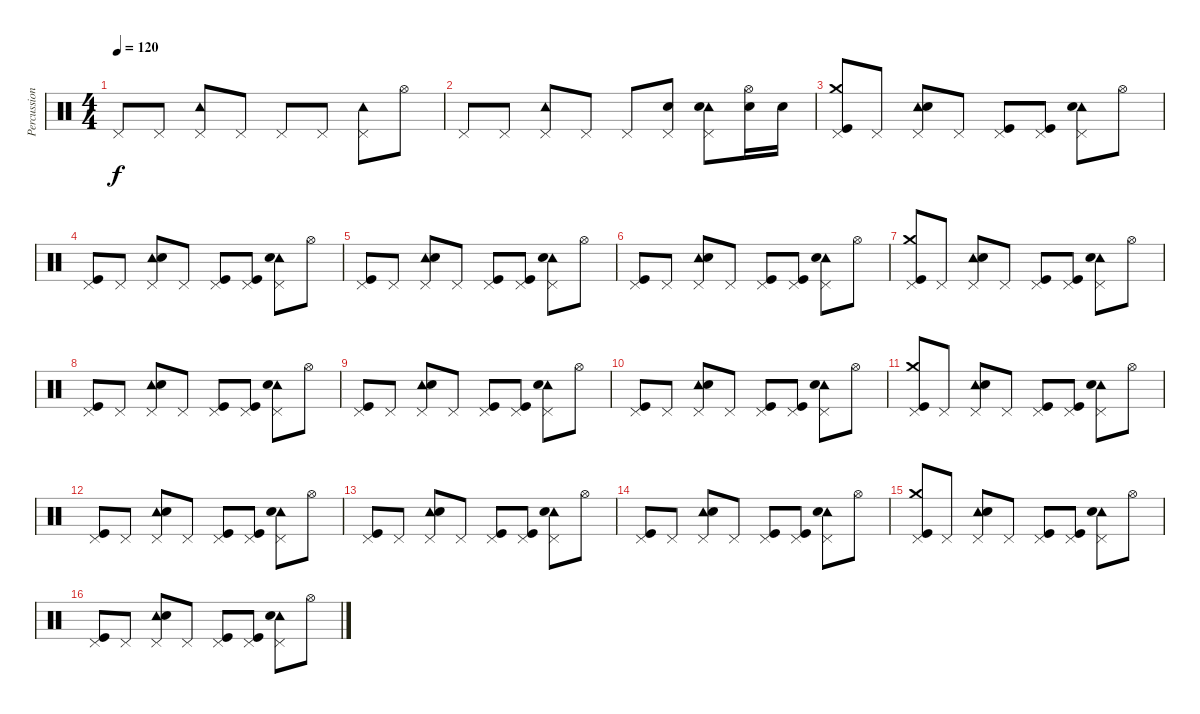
\track ("Percussioni" "Percussion") {instrument percussion}
\staff {score}
\articulation defaults
\ts (4 4)
\tempo 120
\clef neutral
\ks c "Pedal Hi-Hat (hit)".8{dy f} "Pedal Hi-Hat (hit)".8
("Pedal Hi-Hat (hit)" "Tambourine (hit)").8 "Pedal Hi-Hat (hit)".8 "Pedal Hi-Hat (hit)".8 "Pedal Hi-Hat (hit)".8 ("Pedal Hi-Hat (hit)" "Tambourine (hit)").8 "Hi-Hat (open)".8 |
"Pedal Hi-Hat (hit)".8 "Pedal Hi-Hat (hit)".8 ("Pedal Hi-Hat (hit)" "Tambourine (hit)").8 "Pedal Hi-Hat (hit)".8 "Pedal Hi-Hat (hit)".8 ("Pedal Hi-Hat (hit)" "Electric Snare (hit)").8 ("Pedal Hi-Hat (hit)" "Tambourine (hit)" "Electric Snare (hit)").8 ("Hi-Hat (open)" "Electric Snare (hit)").16 "Electric Snare (hit)".16 |
("Pedal Hi-Hat (hit)" "Crash medium (hit)" "Kick (hit)").8 "Pedal Hi-Hat (hit)".8 ("Pedal Hi-Hat (hit)" "Tambourine (hit)" "Electric Snare (hit)").8 "Pedal Hi-Hat (hit)".8 ("Pedal Hi-Hat (hit)" "Kick (hit)").8 ("Pedal Hi-Hat (hit)" "Kick (hit)").8 ("Pedal Hi-Hat (hit)" "Tambourine (hit)" "Electric Snare (hit)").8 "Hi-Hat (open)".8 |
("Pedal Hi-Hat (hit)" "Kick (hit)").8 "Pedal Hi-Hat (hit)".8 ("Pedal Hi-Hat (hit)" "Tambourine (hit)" "Electric Snare (hit)").8 "Pedal Hi-Hat (hit)".8 ("Pedal Hi-Hat (hit)" "Kick (hit)").8 ("Pedal Hi-Hat (hit)" "Kick (hit)").8 ("Pedal Hi-Hat (hit)" "Tambourine (hit)" "Electric Snare (hit)").8 "Hi-Hat (open)".8 |
("Pedal Hi-Hat (hit)" "Kick (hit)").8 "Pedal Hi-Hat (hit)".8 ("Pedal Hi-Hat (hit)" "Tambourine (hit)" "Electric Snare (hit)").8 "Pedal Hi-Hat (hit)".8 ("Pedal Hi-Hat (hit)" "Kick (hit)").8 ("Pedal Hi-Hat (hit)" "Kick (hit)").8 ("Pedal Hi-Hat (hit)" "Tambourine (hit)" "Electric Snare (hit)").8 "Hi-Hat (open)".8 |
("Pedal Hi-Hat (hit)" "Kick (hit)").8 "Pedal Hi-Hat (hit)".8 ("Pedal Hi-Hat (hit)" "Tambourine (hit)" "Electric Snare (hit)").8 "Pedal Hi-Hat (hit)".8 ("Pedal Hi-Hat (hit)" "Kick (hit)").8 ("Pedal Hi-Hat (hit)" "Kick (hit)").8 ("Pedal Hi-Hat (hit)" "Tambourine (hit)" "Electric Snare (hit)").8 "Hi-Hat (open)".8 |
("Pedal Hi-Hat (hit)" "Crash medium (hit)" "Kick (hit)").8 "Pedal Hi-Hat (hit)".8 ("Pedal Hi-Hat (hit)" "Tambourine (hit)" "Electric Snare (hit)").8 "Pedal Hi-Hat (hit)".8 ("Pedal Hi-Hat (hit)" "Kick (hit)").8 ("Pedal Hi-Hat (hit)" "Kick (hit)").8 ("Pedal Hi-Hat (hit)" "Tambourine (hit)" "Electric Snare (hit)").8 "Hi-Hat (open)".8 |
("Pedal Hi-Hat (hit)" "Kick (hit)").8 "Pedal Hi-Hat (hit)".8 ("Pedal Hi-Hat (hit)" "Tambourine (hit)" "Electric Snare (hit)").8 "Pedal Hi-Hat (hit)".8 ("Pedal Hi-Hat (hit)" "Kick (hit)").8 ("Pedal Hi-Hat (hit)" "Kick (hit)").8 ("Pedal Hi-Hat (hit)" "Tambourine (hit)" "Electric Snare (hit)").8 "Hi-Hat (open)".8 |
("Pedal Hi-Hat (hit)" "Kick (hit)").8 "Pedal Hi-Hat (hit)".8 ("Pedal Hi-Hat (hit)" "Tambourine (hit)" "Electric Snare (hit)").8 "Pedal Hi-Hat (hit)".8 ("Pedal Hi-Hat (hit)" "Kick (hit)").8 ("Pedal Hi-Hat (hit)" "Kick (hit)").8 ("Pedal Hi-Hat (hit)" "Tambourine (hit)" "Electric Snare (hit)").8 "Hi-Hat (open)".8 |
("Pedal Hi-Hat (hit)" "Kick (hit)").8 "Pedal Hi-Hat (hit)".8 ("Pedal Hi-Hat (hit)" "Tambourine (hit)" "Electric Snare (hit)").8 "Pedal Hi-Hat (hit)".8 ("Pedal Hi-Hat (hit)" "Kick (hit)").8 ("Pedal Hi-Hat (hit)" "Kick (hit)").8 ("Pedal Hi-Hat (hit)" "Tambourine (hit)" "Electric Snare (hit)").8 "Hi-Hat (open)".8 |
("Pedal Hi-Hat (hit)" "Crash medium (hit)" "Kick (hit)").8 "Pedal Hi-Hat (hit)".8 ("Pedal Hi-Hat (hit)" "Tambourine (hit)" "Electric Snare (hit)").8 "Pedal Hi-Hat (hit)".8 ("Pedal Hi-Hat (hit)" "Kick (hit)").8 ("Pedal Hi-Hat (hit)" "Kick (hit)").8 ("Pedal Hi-Hat (hit)" "Tambourine (hit)" "Electric Snare (hit)").8 "Hi-Hat (open)".8 |
("Pedal Hi-Hat (hit)" "Kick (hit)").8 "Pedal Hi-Hat (hit)".8 ("Pedal Hi-Hat (hit)" "Tambourine (hit)" "Electric Snare (hit)").8 "Pedal Hi-Hat (hit)".8 ("Pedal Hi-Hat (hit)" "Kick (hit)").8 ("Pedal Hi-Hat (hit)" "Kick (hit)").8 ("Pedal Hi-Hat (hit)" "Tambourine (hit)" "Electric Snare (hit)").8 "Hi-Hat (open)".8 |
("Pedal Hi-Hat (hit)" "Kick (hit)").8 "Pedal Hi-Hat (hit)".8 ("Pedal Hi-Hat (hit)" "Tambourine (hit)" "Electric Snare (hit)").8 "Pedal Hi-Hat (hit)".8 ("Pedal Hi-Hat (hit)" "Kick (hit)").8 ("Pedal Hi-Hat (hit)" "Kick (hit)").8 ("Pedal Hi-Hat (hit)" "Tambourine (hit)" "Electric Snare (hit)").8 "Hi-Hat (open)".8 |
("Pedal Hi-Hat (hit)" "Kick (hit)").8 "Pedal Hi-Hat (hit)".8 ("Pedal Hi-Hat (hit)" "Tambourine (hit)" "Electric Snare (hit)").8 "Pedal Hi-Hat (hit)".8 ("Pedal Hi-Hat (hit)" "Kick (hit)").8 ("Pedal Hi-Hat (hit)" "Kick (hit)").8 ("Pedal Hi-Hat (hit)" "Tambourine (hit)" "Electric Snare (hit)").8 "Hi-Hat (open)".8 |
("Pedal Hi-Hat (hit)" "Crash medium (hit)" "Kick (hit)").8 "Pedal Hi-Hat (hit)".8 ("Pedal Hi-Hat (hit)" "Tambourine (hit)" "Electric Snare (hit)").8 "Pedal Hi-Hat (hit)".8 ("Pedal Hi-Hat (hit)" "Kick (hit)").8 ("Pedal Hi-Hat (hit)" "Kick (hit)").8 ("Pedal Hi-Hat (hit)" "Tambourine (hit)" "Electric Snare (hit)").8 "Hi-Hat (open)".8 |
("Pedal Hi-Hat (hit)" "Kick (hit)").8 "Pedal Hi-Hat (hit)".8 ("Pedal Hi-Hat (hit)" "Tambourine (hit)" "Electric Snare (hit)").8 "Pedal Hi-Hat (hit)".8 ("Pedal Hi-Hat (hit)" "Kick (hit)").8 ("Pedal Hi-Hat (hit)" "Kick (hit)").8 ("Pedal Hi-Hat (hit)" "Tambourine (hit)" "Electric Snare (hit)").8 "Hi-Hat (open)".8
